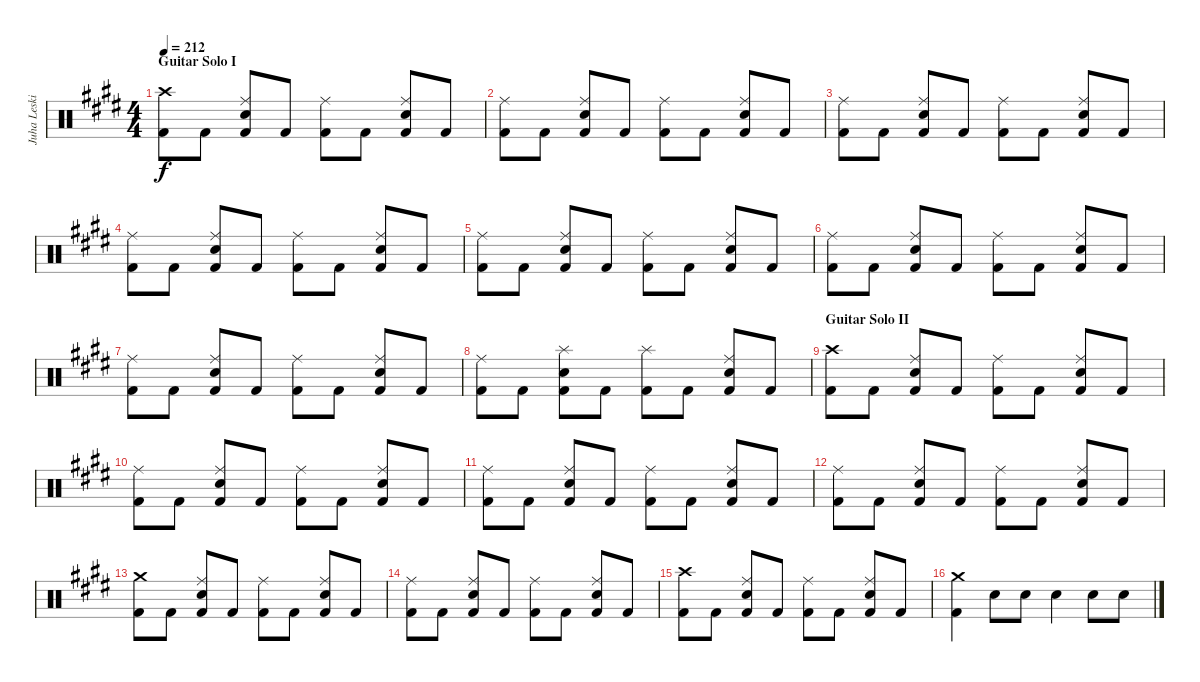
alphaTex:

\track ("Juha Leskinen - Drums" "Juha Leski") {instrument percussion}
\staff {score}
\articulation defaults
\ts (4 4)
\section ("" "Guitar Solo I")
\tempo 212
\clef neutral
\ks c#minor
("Crash high (hit)" "Kick (hit) 2").8{dy f} "Kick (hit) 2".8 ("Ride (middle)" "Electric Snare (hit)" "Kick (hit) 2").8 "Kick (hit) 2".8 ("Ride (middle)" "Kick (hit) 2").8 "Kick (hit) 2".8 ("Ride (middle)" "Electric Snare (hit)" "Kick (hit) 2").8 "Kick (hit) 2".8 |
("Ride (middle)" "Kick (hit) 2").8 "Kick (hit) 2".8 ("Ride (middle)" "Electric Snare (hit)" "Kick (hit) 2").8 "Kick (hit) 2".8 ("Ride (middle)" "Kick (hit) 2").8 "Kick (hit) 2".8 ("Ride (middle)" "Electric Snare (hit)" "Kick (hit) 2").8 "Kick (hit) 2".8 |
("Ride (middle)" "Kick (hit) 2").8 "Kick (hit) 2".8 ("Ride (middle)" "Electric Snare (hit)" "Kick (hit) 2").8 "Kick (hit) 2".8 ("Ride (middle)" "Kick (hit) 2").8 "Kick (hit) 2".8 ("Ride (middle)" "Electric Snare (hit)" "Kick (hit) 2").8 "Kick (hit) 2".8 |
("Ride (middle)" "Kick (hit) 2").8 "Kick (hit) 2".8 ("Ride (middle)" "Electric Snare (hit)" "Kick (hit) 2").8 "Kick (hit) 2".8 ("Ride (middle)" "Kick (hit) 2").8 "Kick (hit) 2".8 ("Ride (middle)" "Electric Snare (hit)" "Kick (hit) 2").8 "Kick (hit) 2".8 |
("Ride (middle)" "Kick (hit) 2").8 "Kick (hit) 2".8 ("Ride (middle)" "Electric Snare (hit)" "Kick (hit) 2").8 "Kick (hit) 2".8 ("Ride (middle)" "Kick (hit) 2").8 "Kick (hit) 2".8 ("Ride (middle)" "Electric Snare (hit)" "Kick (hit) 2").8 "Kick (hit) 2".8 |
("Ride (middle)" "Kick (hit) 2").8 "Kick (hit) 2".8 ("Ride (middle)" "Electric Snare (hit)" "Kick (hit) 2").8 "Kick (hit) 2".8 ("Ride (middle)" "Kick (hit) 2").8 "Kick (hit) 2".8 ("Ride (middle)" "Electric Snare (hit)" "Kick (hit) 2").8 "Kick (hit) 2".8 |
("Ride (middle)" "Kick (hit) 2").8 "Kick (hit) 2".8 ("Ride (middle)" "Electric Snare (hit)" "Kick (hit) 2").8 "Kick (hit) 2".8 ("Ride (middle)" "Kick (hit) 2").8 "Kick (hit) 2".8 ("Ride (middle)" "Electric Snare (hit)" "Kick (hit) 2").8 "Kick (hit) 2".8 |
("Ride (middle)" "Kick (hit) 2").8 "Kick (hit) 2".8 ("Splash (hit)" "Electric Snare (hit)" "Kick (hit) 2").8 "Kick (hit) 2".8 ("Splash (hit)" "Kick (hit) 2").8 "Kick (hit) 2".8 ("Ride (middle)" "Electric Snare (hit)" "Kick (hit) 2").8 "Kick (hit) 2".8 |
\section ("" "Guitar Solo II")
("Crash high (hit)" "Kick (hit) 2").8 "Kick (hit) 2".8 ("Ride (middle)" "Electric Snare (hit)" "Kick (hit) 2").8 "Kick (hit) 2".8 ("Ride (middle)" "Kick (hit) 2").8 "Kick (hit) 2".8 ("Ride (middle)" "Electric Snare (hit)" "Kick (hit) 2").8 "Kick (hit) 2".8 |
("Ride (middle)" "Kick (hit) 2").8 "Kick (hit) 2".8 ("Ride (middle)" "Electric Snare (hit)" "Kick (hit) 2").8 "Kick (hit) 2".8 ("Ride (middle)" "Kick (hit) 2").8 "Kick (hit) 2".8 ("Ride (middle)" "Electric Snare (hit)" "Kick (hit) 2").8 "Kick (hit) 2".8 |
("Ride (middle)" "Kick (hit) 2").8 "Kick (hit) 2".8 ("Ride (middle)" "Electric Snare (hit)" "Kick (hit) 2").8 "Kick (hit) 2".8 ("Ride (middle)" "Kick (hit) 2").8 "Kick (hit) 2".8 ("Ride (middle)" "Electric Snare (hit)" "Kick (hit) 2").8 "Kick (hit) 2".8 |
("Ride (middle)" "Kick (hit) 2").8 "Kick (hit) 2".8 ("Ride (middle)" "Electric Snare (hit)" "Kick (hit) 2").8 "Kick (hit) 2".8 ("Ride (middle)" "Kick (hit) 2").8 "Kick (hit) 2".8 ("Ride (middle)" "Electric Snare (hit)" "Kick (hit) 2").8 "Kick (hit) 2".8 |
("Crash medium (hit)" "Kick (hit) 2").8 "Kick (hit) 2".8 ("Ride (middle)" "Electric Snare (hit)" "Kick (hit) 2").8 "Kick (hit) 2".8 ("Ride (middle)" "Kick (hit) 2").8 "Kick (hit) 2".8 ("Ride (middle)" "Electric Snare (hit)" "Kick (hit) 2").8 "Kick (hit) 2".8 |
("Ride (middle)" "Kick (hit) 2").8 "Kick (hit) 2".8 ("Ride (middle)" "Electric Snare (hit)" "Kick (hit) 2").8 "Kick (hit) 2".8 ("Ride (middle)" "Kick (hit) 2").8 "Kick (hit) 2".8 ("Ride (middle)" "Electric Snare (hit)" "Kick (hit) 2").8 "Kick (hit) 2".8 |
("Crash high (hit)" "Kick (hit) 2").8 "Kick (hit) 2".8 ("Ride (middle)" "Electric Snare (hit)" "Kick (hit) 2").8 "Kick (hit) 2".8 ("Ride (middle)" "Kick (hit) 2").8 "Kick (hit) 2".8 ("Ride (middle)" "Electric Snare (hit)" "Kick (hit) 2").8 "Kick (hit) 2".8 |
("Crash medium (hit)" "Kick (hit) 2").4 "Electric Snare (hit)".8 "Electric Snare (hit)".8 "Electric Snare (hit)".4 "Electric Snare (hit)".8 "Electric Snare (hit)".8
